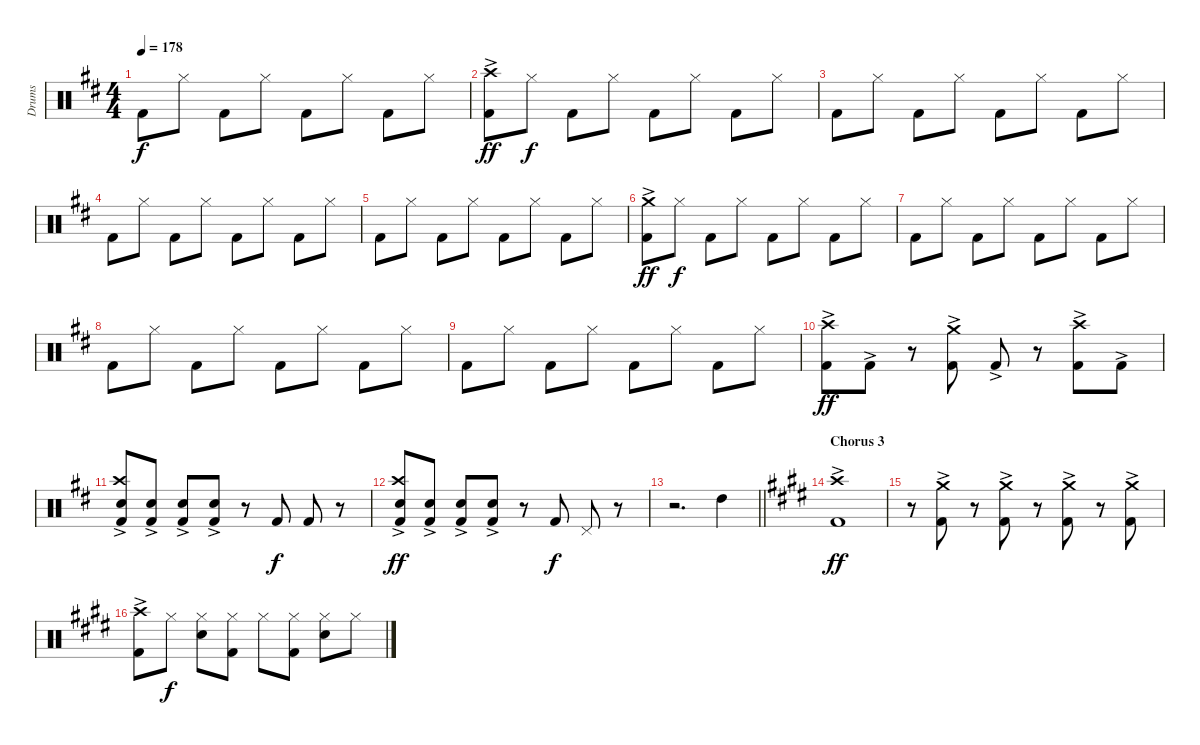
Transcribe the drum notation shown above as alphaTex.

\track ("Drums" "Drums") {instrument percussion}
\staff {score}
\articulation defaults
\ts (4 4)
\tempo 178
\clef neutral
\ks d "Kick (hit) 2".8{dy f} "Hi-Hat (closed)".8 "Kick (hit) 2".8 "Hi-Hat (closed)".8 "Kick (hit) 2".8 "Hi-Hat (closed)".8 "Kick (hit) 2".8 "Hi-Hat (closed)".8
|
("Crash high (hit)"{ac} "Kick (hit) 2").8{dy ff} "Hi-Hat (closed)".8{dy f} "Kick (hit) 2".8 "Hi-Hat (closed)".8 "Kick (hit) 2".8 "Hi-Hat (closed)".8 "Kick (hit) 2".8 "Hi-Hat (closed)".8 |
"Kick (hit) 2".8 "Hi-Hat (closed)".8 "Kick (hit) 2".8 "Hi-Hat (closed)".8 "Kick (hit) 2".8 "Hi-Hat (closed)".8 "Kick (hit) 2".8 "Hi-Hat (closed)".8 |
"Kick (hit) 2".8 "Hi-Hat (closed)".8 "Kick (hit) 2".8 "Hi-Hat (closed)".8 "Kick (hit) 2".8 "Hi-Hat (closed)".8 "Kick (hit) 2".8 "Hi-Hat (closed)".8 |
"Kick (hit) 2".8 "Hi-Hat (closed)".8 "Kick (hit) 2".8 "Hi-Hat (closed)".8 "Kick (hit) 2".8 "Hi-Hat (closed)".8 "Kick (hit) 2".8 "Hi-Hat (closed)".8 |
("Crash medium (hit)"{ac} "Kick (hit) 2").8{dy ff} "Hi-Hat (closed)".8{dy f} "Kick (hit) 2".8 "Hi-Hat (closed)".8 "Kick (hit) 2".8 "Hi-Hat (closed)".8 "Kick (hit) 2".8 "Hi-Hat (closed)".8 |
"Kick (hit) 2".8 "Hi-Hat (closed)".8 "Kick (hit) 2".8 "Hi-Hat (closed)".8 "Kick (hit) 2".8 "Hi-Hat (closed)".8 "Kick (hit) 2".8 "Hi-Hat (closed)".8 |
"Kick (hit) 2".8 "Hi-Hat (closed)".8 "Kick (hit) 2".8 "Hi-Hat (closed)".8 "Kick (hit) 2".8 "Hi-Hat (closed)".8 "Kick (hit) 2".8 "Hi-Hat (closed)".8 |
"Kick (hit) 2".8 "Hi-Hat (closed)".8 "Kick (hit) 2".8 "Hi-Hat (closed)".8 "Kick (hit) 2".8 "Hi-Hat (closed)".8 "Kick (hit) 2".8 "Hi-Hat (closed)".8 |
("Crash high (hit)"{ac} "Kick (hit) 2"{ac}).8{dy ff} "Kick (hit) 2"{ac}.8 r.8 ("Crash medium (hit)"{ac} "Kick (hit) 2"{ac}).8 "Kick (hit) 2"{ac}.8 r.8 ("Crash high (hit)"{ac} "Kick (hit) 2"{ac}).8 "Kick (hit) 2"{ac}.8 |
("Crash high (hit)"{ac} "Electric Snare (hit)"{ac} "Kick (hit) 2"{ac}).8 ("Electric Snare (hit)"{ac} "Kick (hit) 2"{ac}).8 ("Electric Snare (hit)"{ac} "Kick (hit) 2"{ac}).8 ("Electric Snare (hit)"{ac} "Kick (hit) 2"{ac}).8 r.8 "Kick (hit) 2".8{dy f} "Kick (hit) 2".8 r.8 |
("Crash high (hit)"{ac} "Electric Snare (hit)"{ac} "Kick (hit) 2"{ac}).8{dy ff} ("Electric Snare (hit)"{ac} "Kick (hit) 2"{ac}).8 ("Electric Snare (hit)"{ac} "Kick (hit) 2"{ac}).8 ("Electric Snare (hit)"{ac} "Kick (hit) 2"{ac}).8 r.8 "Kick (hit) 2".8{dy f} "Pedal Hi-Hat (hit)".8 r.8 |
\barLineRight lightlight
r.2{d} "High Tom (hit)".4 |
\section ("" "Chorus 3")
\ks e
("Crash high (hit)"{ac} "Kick (hit) 2").1{dy ff} |
r.8 ("Crash medium (hit)"{ac} "Kick (hit) 2").8 r.8 ("Crash medium (hit)"{ac} "Kick (hit) 2").8 r.8 ("Crash medium (hit)"{ac} "Kick (hit) 2").8 r.8 ("Crash medium (hit)"{ac} "Kick (hit) 2").8 |
("Crash high (hit)"{ac} "Kick (hit) 2").8 "Hi-Hat (closed)".8{dy f} ("Hi-Hat (closed)" "Electric Snare (hit)").8 ("Hi-Hat (closed)" "Kick (hit) 2").8 "Hi-Hat (closed)".8 ("Hi-Hat (closed)" "Kick (hit) 2").8 ("Hi-Hat (closed)" "Electric Snare (hit)").8 "Hi-Hat (closed)".8
